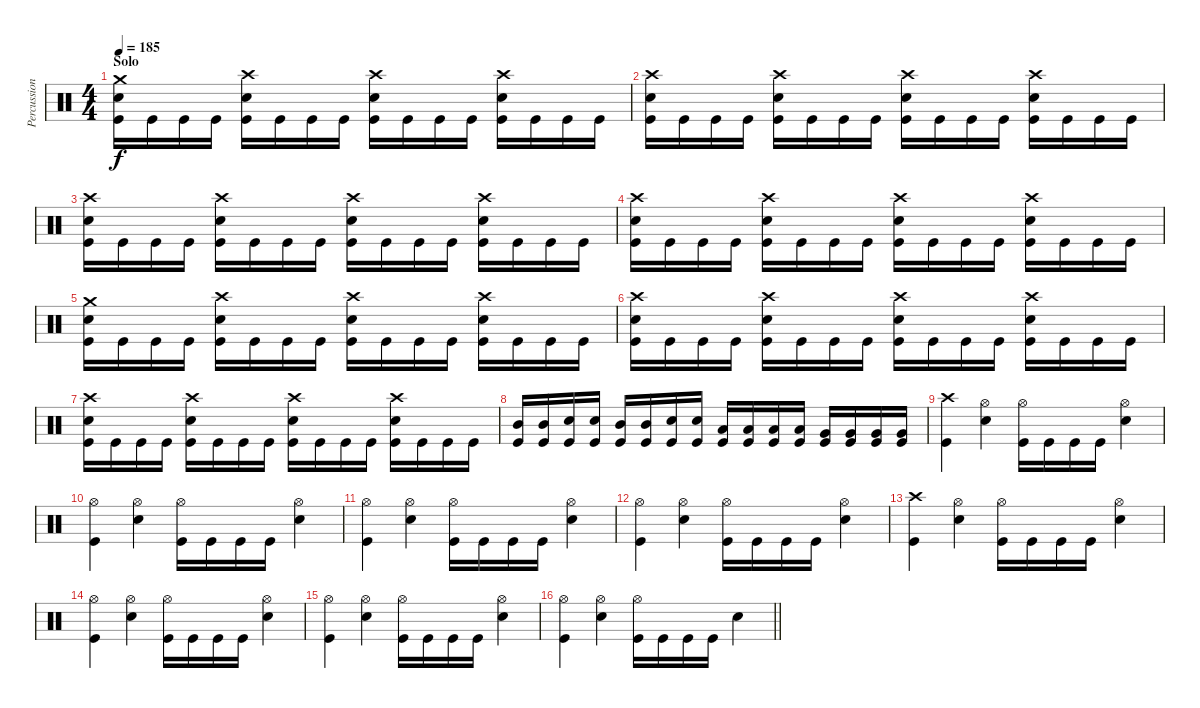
\track ("Percussion" "Percussion") {instrument percussion}
\staff {score}
\articulation defaults
\ts (4 4)
\section ("" "Solo")
\tempo 185
\clef neutral
\ks c
("Crash medium (hit)" "Electric Snare (hit)" "Kick (hit)").16{dy f} "Kick (hit)".16 "Kick (hit)".16 "Kick (hit)".16 ("Crash high (hit)" "Electric Snare (hit)" "Kick (hit)").16 "Kick (hit)".16 "Kick (hit)".16 "Kick (hit)".16 ("Crash high (hit)" "Electric Snare (hit)" "Kick (hit)").16 "Kick (hit)".16 "Kick (hit)".16 "Kick (hit)".16 ("Crash high (hit)" "Electric Snare (hit)" "Kick (hit)").16 "Kick (hit)".16 "Kick (hit)".16 "Kick (hit)".16 |
("Crash high (hit)" "Electric Snare (hit)" "Kick (hit)").16 "Kick (hit)".16 "Kick (hit)".16 "Kick (hit)".16 ("Crash high (hit)" "Electric Snare (hit)" "Kick (hit)").16 "Kick (hit)".16 "Kick (hit)".16 "Kick (hit)".16 ("Crash high (hit)" "Electric Snare (hit)" "Kick (hit)").16 "Kick (hit)".16 "Kick (hit)".16 "Kick (hit)".16 ("Crash high (hit)" "Electric Snare (hit)" "Kick (hit)").16 "Kick (hit)".16 "Kick (hit)".16 "Kick (hit)".16 |
("Crash high (hit)" "Electric Snare (hit)" "Kick (hit)").16 "Kick (hit)".16 "Kick (hit)".16 "Kick (hit)".16 ("Crash high (hit)" "Electric Snare (hit)" "Kick (hit)").16 "Kick (hit)".16 "Kick (hit)".16 "Kick (hit)".16 ("Crash high (hit)" "Electric Snare (hit)" "Kick (hit)").16 "Kick (hit)".16 "Kick (hit)".16 "Kick (hit)".16 ("Crash high (hit)" "Electric Snare (hit)" "Kick (hit)").16 "Kick (hit)".16 "Kick (hit)".16 "Kick (hit)".16 |
("Crash high (hit)" "Electric Snare (hit)" "Kick (hit)").16 "Kick (hit)".16 "Kick (hit)".16 "Kick (hit)".16 ("Crash high (hit)" "Electric Snare (hit)" "Kick (hit)").16 "Kick (hit)".16 "Kick (hit)".16 "Kick (hit)".16 ("Crash high (hit)" "Electric Snare (hit)" "Kick (hit)").16 "Kick (hit)".16 "Kick (hit)".16 "Kick (hit)".16 ("Crash high (hit)" "Electric Snare (hit)" "Kick (hit)").16 "Kick (hit)".16 "Kick (hit)".16 "Kick (hit)".16 |
("Crash medium (hit)" "Electric Snare (hit)" "Kick (hit)").16 "Kick (hit)".16 "Kick (hit)".16 "Kick (hit)".16 ("Crash high (hit)" "Electric Snare (hit)" "Kick (hit)").16 "Kick (hit)".16 "Kick (hit)".16 "Kick (hit)".16 ("Crash high (hit)" "Electric Snare (hit)" "Kick (hit)").16 "Kick (hit)".16 "Kick (hit)".16 "Kick (hit)".16 ("Crash high (hit)" "Electric Snare (hit)" "Kick (hit)").16 "Kick (hit)".16 "Kick (hit)".16 "Kick (hit)".16 |
("Crash high (hit)" "Electric Snare (hit)" "Kick (hit)").16 "Kick (hit)".16 "Kick (hit)".16 "Kick (hit)".16 ("Crash high (hit)" "Electric Snare (hit)" "Kick (hit)").16 "Kick (hit)".16 "Kick (hit)".16 "Kick (hit)".16 ("Crash high (hit)" "Electric Snare (hit)" "Kick (hit)").16 "Kick (hit)".16 "Kick (hit)".16 "Kick (hit)".16 ("Crash high (hit)" "Electric Snare (hit)" "Kick (hit)").16 "Kick (hit)".16 "Kick (hit)".16 "Kick (hit)".16 |
("Crash high (hit)" "Electric Snare (hit)" "Kick (hit)").16 "Kick (hit)".16 "Kick (hit)".16 "Kick (hit)".16 ("Crash high (hit)" "Electric Snare (hit)" "Kick (hit)").16 "Kick (hit)".16 "Kick (hit)".16 "Kick (hit)".16 ("Crash high (hit)" "Electric Snare (hit)" "Kick (hit)").16 "Kick (hit)".16 "Kick (hit)".16 "Kick (hit)".16 ("Crash high (hit)" "Electric Snare (hit)" "Kick (hit)").16 "Kick (hit)".16 "Kick (hit)".16 "Kick (hit)".16 |
("Mid Tom (hit)" "Kick (hit)").16 ("Mid Tom (hit)" "Kick (hit)").16 ("Electric Snare (hit)" "Kick (hit)").16 ("Electric Snare (hit)" "Kick (hit)").16 ("Mid Tom (hit)" "Kick (hit)").16 ("Mid Tom (hit)" "Kick (hit)").16 ("Electric Snare (hit)" "Kick (hit)").16 ("Electric Snare (hit)" "Kick (hit)").16 ("Low Tom (hit)" "Kick (hit)").16 ("Low Tom (hit)" "Kick (hit)").16 ("Low Tom (hit)" "Kick (hit)").16 ("Low Tom (hit)" "Kick (hit)").16 ("Very Low Tom (hit)" "Kick (hit)").16 ("Very Low Tom (hit)" "Kick (hit)").16 ("Very Low Tom (hit)" "Kick (hit)").16 ("Very Low Tom (hit)" "Kick (hit)").16 |
("Crash high (hit)" "Kick (hit)").4 ("Hi-Hat (open)" "Electric Snare (hit)").4 ("Hi-Hat (open)" "Kick (hit)").16 "Kick (hit)".16 "Kick (hit)".16 "Kick (hit)".16 ("Hi-Hat (open)" "Electric Snare (hit)").4 |
("Hi-Hat (open)" "Kick (hit)").4 ("Hi-Hat (open)" "Electric Snare (hit)").4 ("Hi-Hat (open)" "Kick (hit)").16 "Kick (hit)".16 "Kick (hit)".16 "Kick (hit)".16 ("Hi-Hat (open)" "Electric Snare (hit)").4 |
("Hi-Hat (open)" "Kick (hit)").4 ("Hi-Hat (open)" "Electric Snare (hit)").4 ("Hi-Hat (open)" "Kick (hit)").16 "Kick (hit)".16 "Kick (hit)".16 "Kick (hit)".16 ("Hi-Hat (open)" "Electric Snare (hit)").4 |
("Hi-Hat (open)" "Kick (hit)").4 ("Hi-Hat (open)" "Electric Snare (hit)").4 ("Hi-Hat (open)" "Kick (hit)").16 "Kick (hit)".16 "Kick (hit)".16 "Kick (hit)".16 ("Hi-Hat (open)" "Electric Snare (hit)").4 |
("Crash high (hit)" "Kick (hit)").4 ("Hi-Hat (open)" "Electric Snare (hit)").4 ("Hi-Hat (open)" "Kick (hit)").16 "Kick (hit)".16 "Kick (hit)".16 "Kick (hit)".16 ("Hi-Hat (open)" "Electric Snare (hit)").4 |
("Hi-Hat (open)" "Kick (hit)").4 ("Hi-Hat (open)" "Electric Snare (hit)").4 ("Hi-Hat (open)" "Kick (hit)").16 "Kick (hit)".16 "Kick (hit)".16 "Kick (hit)".16 ("Hi-Hat (open)" "Electric Snare (hit)").4 |
("Hi-Hat (open)" "Kick (hit)").4 ("Hi-Hat (open)" "Electric Snare (hit)").4 ("Hi-Hat (open)" "Kick (hit)").16 "Kick (hit)".16 "Kick (hit)".16 "Kick (hit)".16 ("Hi-Hat (open)" "Electric Snare (hit)").4 |
\barLineRight lightlight
("Hi-Hat (open)" "Kick (hit)").4 ("Hi-Hat (open)" "Electric Snare (hit)").4 ("Hi-Hat (open)" "Kick (hit)").16 "Kick (hit)".16 "Kick (hit)".16 "Kick (hit)".16 "Electric Snare (hit)".4
